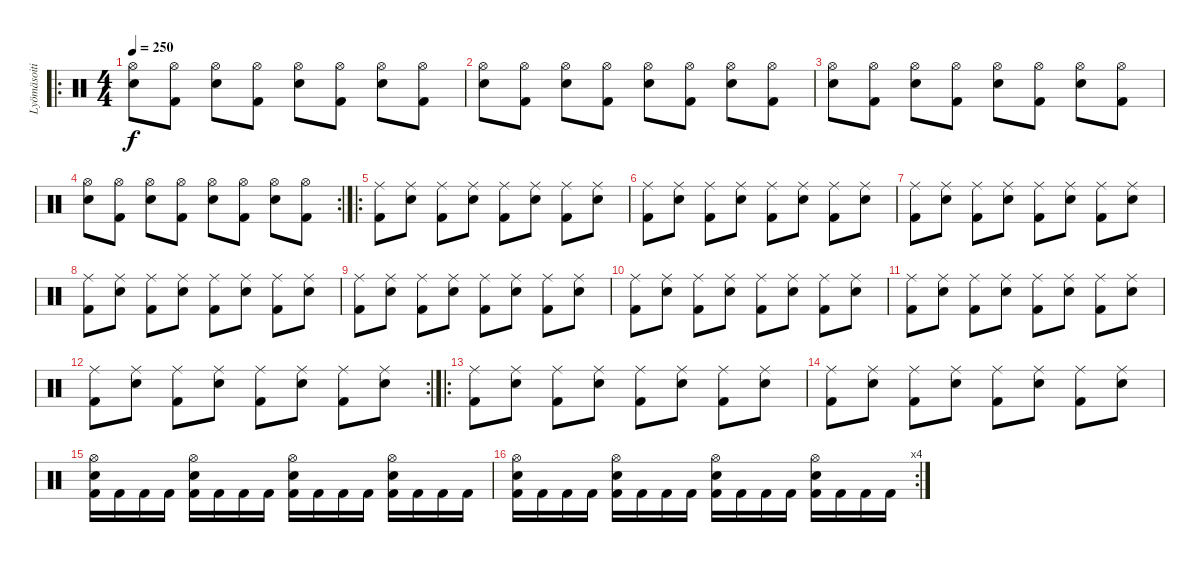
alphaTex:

\track ("Lyömäsoitin" "Lyömäsoiti") {instrument percussion}
\staff {score}
\articulation defaults
\ro
\ts (4 4)
\tempo 250
\clef neutral
\ks c
("Hi-Hat (open)" "Electric Snare (hit)").8{dy f} ("Hi-Hat (open)" "Kick (hit) 2").8 ("Hi-Hat (open)" "Electric Snare (hit)").8 ("Hi-Hat (open)" "Kick (hit) 2").8 ("Hi-Hat (open)" "Electric Snare (hit)").8 ("Hi-Hat (open)" "Kick (hit) 2").8 ("Hi-Hat (open)" "Electric Snare (hit)").8 ("Hi-Hat (open)" "Kick (hit) 2").8 |
("Hi-Hat (open)" "Electric Snare (hit)").8 ("Hi-Hat (open)" "Kick (hit) 2").8 ("Hi-Hat (open)" "Electric Snare (hit)").8 ("Hi-Hat (open)" "Kick (hit) 2").8 ("Hi-Hat (open)" "Electric Snare (hit)").8 ("Hi-Hat (open)" "Kick (hit) 2").8 ("Hi-Hat (open)" "Electric Snare (hit)").8 ("Hi-Hat (open)" "Kick (hit) 2").8 |
("Hi-Hat (open)" "Electric Snare (hit)").8 ("Hi-Hat (open)" "Kick (hit) 2").8 ("Hi-Hat (open)" "Electric Snare (hit)").8 ("Hi-Hat (open)" "Kick (hit) 2").8 ("Hi-Hat (open)" "Electric Snare (hit)").8 ("Hi-Hat (open)" "Kick (hit) 2").8 ("Hi-Hat (open)" "Electric Snare (hit)").8 ("Hi-Hat (open)" "Kick (hit) 2").8 |
\rc 2
("Hi-Hat (open)" "Electric Snare (hit)").8 ("Hi-Hat (open)" "Kick (hit) 2").8 ("Hi-Hat (open)" "Electric Snare (hit)").8 ("Hi-Hat (open)" "Kick (hit) 2").8 ("Hi-Hat (open)" "Electric Snare (hit)").8 ("Hi-Hat (open)" "Kick (hit) 2").8 ("Hi-Hat (open)" "Electric Snare (hit)").8 ("Hi-Hat (open)" "Kick (hit) 2").8 |
\ro
("Ride (middle)" "Kick (hit) 2").8 ("Ride (middle)" "Electric Snare (hit)").8 ("Ride (middle)" "Kick (hit) 2").8 ("Ride (middle)" "Electric Snare (hit)").8 ("Ride (middle)" "Kick (hit) 2").8 ("Ride (middle)" "Electric Snare (hit)").8 ("Ride (middle)" "Kick (hit) 2").8 ("Ride (middle)" "Electric Snare (hit)").8 |
("Ride (middle)" "Kick (hit) 2").8 ("Ride (middle)" "Electric Snare (hit)").8 ("Ride (middle)" "Kick (hit) 2").8 ("Ride (middle)" "Electric Snare (hit)").8 ("Ride (middle)" "Kick (hit) 2").8 ("Ride (middle)" "Electric Snare (hit)").8 ("Ride (middle)" "Kick (hit) 2").8 ("Ride (middle)" "Electric Snare (hit)").8 |
("Ride (middle)" "Kick (hit) 2").8 ("Ride (middle)" "Electric Snare (hit)").8 ("Ride (middle)" "Kick (hit) 2").8 ("Ride (middle)" "Electric Snare (hit)").8 ("Ride (middle)" "Kick (hit) 2").8 ("Ride (middle)" "Electric Snare (hit)").8 ("Ride (middle)" "Kick (hit) 2").8 ("Ride (middle)" "Electric Snare (hit)").8 |
("Ride (middle)" "Kick (hit) 2").8 ("Ride (middle)" "Electric Snare (hit)").8 ("Ride (middle)" "Kick (hit) 2").8 ("Ride (middle)" "Electric Snare (hit)").8 ("Ride (middle)" "Kick (hit) 2").8 ("Ride (middle)" "Electric Snare (hit)").8 ("Ride (middle)" "Kick (hit) 2").8 ("Ride (middle)" "Electric Snare (hit)").8 |
("Ride (middle)" "Kick (hit) 2").8 ("Ride (middle)" "Electric Snare (hit)").8 ("Ride (middle)" "Kick (hit) 2").8 ("Ride (middle)" "Electric Snare (hit)").8 ("Ride (middle)" "Kick (hit) 2").8 ("Ride (middle)" "Electric Snare (hit)").8 ("Ride (middle)" "Kick (hit) 2").8 ("Ride (middle)" "Electric Snare (hit)").8 |
("Ride (middle)" "Kick (hit) 2").8 ("Ride (middle)" "Electric Snare (hit)").8 ("Ride (middle)" "Kick (hit) 2").8 ("Ride (middle)" "Electric Snare (hit)").8 ("Ride (middle)" "Kick (hit) 2").8 ("Ride (middle)" "Electric Snare (hit)").8 ("Ride (middle)" "Kick (hit) 2").8 ("Ride (middle)" "Electric Snare (hit)").8 |
("Ride (middle)" "Kick (hit) 2").8 ("Ride (middle)" "Electric Snare (hit)").8 ("Ride (middle)" "Kick (hit) 2").8 ("Ride (middle)" "Electric Snare (hit)").8 ("Ride (middle)" "Kick (hit) 2").8 ("Ride (middle)" "Electric Snare (hit)").8 ("Ride (middle)" "Kick (hit) 2").8 ("Ride (middle)" "Electric Snare (hit)").8 |
\rc 2
("Ride (middle)" "Kick (hit) 2").8 ("Ride (middle)" "Electric Snare (hit)").8 ("Ride (middle)" "Kick (hit) 2").8 ("Ride (middle)" "Electric Snare (hit)").8 ("Ride (middle)" "Kick (hit) 2").8 ("Ride (middle)" "Electric Snare (hit)").8 ("Ride (middle)" "Kick (hit) 2").8 ("Ride (middle)" "Electric Snare (hit)").8 |
\ro
("Ride (middle)" "Kick (hit) 2").8 ("Ride (middle)" "Electric Snare (hit)").8 ("Ride (middle)" "Kick (hit) 2").8 ("Ride (middle)" "Electric Snare (hit)").8 ("Ride (middle)" "Kick (hit) 2").8 ("Ride (middle)" "Electric Snare (hit)").8 ("Ride (middle)" "Kick (hit) 2").8 ("Ride (middle)" "Electric Snare (hit)").8 |
("Ride (middle)" "Kick (hit) 2").8 ("Ride (middle)" "Electric Snare (hit)").8 ("Ride (middle)" "Kick (hit) 2").8 ("Ride (middle)" "Electric Snare (hit)").8 ("Ride (middle)" "Kick (hit) 2").8 ("Ride (middle)" "Electric Snare (hit)").8 ("Ride (middle)" "Kick (hit) 2").8 ("Ride (middle)" "Electric Snare (hit)").8 |
("Hi-Hat (open)" "Electric Snare (hit)" "Kick (hit) 2").16 "Kick (hit) 2".16 "Kick (hit) 2".16 "Kick (hit) 2".16 ("Hi-Hat (open)" "Electric Snare (hit)" "Kick (hit) 2").16 "Kick (hit) 2".16 "Kick (hit) 2".16 "Kick (hit) 2".16 ("Hi-Hat (open)" "Electric Snare (hit)" "Kick (hit) 2").16 "Kick (hit) 2".16 "Kick (hit) 2".16 "Kick (hit) 2".16 ("Hi-Hat (open)" "Electric Snare (hit)" "Kick (hit) 2").16 "Kick (hit) 2".16 "Kick (hit) 2".16 "Kick (hit) 2".16 |
\rc 4
("Hi-Hat (open)" "Electric Snare (hit)" "Kick (hit) 2").16 "Kick (hit) 2".16 "Kick (hit) 2".16 "Kick (hit) 2".16 ("Hi-Hat (open)" "Electric Snare (hit)" "Kick (hit) 2").16 "Kick (hit) 2".16 "Kick (hit) 2".16 "Kick (hit) 2".16 ("Hi-Hat (open)" "Electric Snare (hit)" "Kick (hit) 2").16 "Kick (hit) 2".16 "Kick (hit) 2".16 "Kick (hit) 2".16 ("Hi-Hat (open)" "Electric Snare (hit)" "Kick (hit) 2").16 "Kick (hit) 2".16 "Kick (hit) 2".16 "Kick (hit) 2".16
